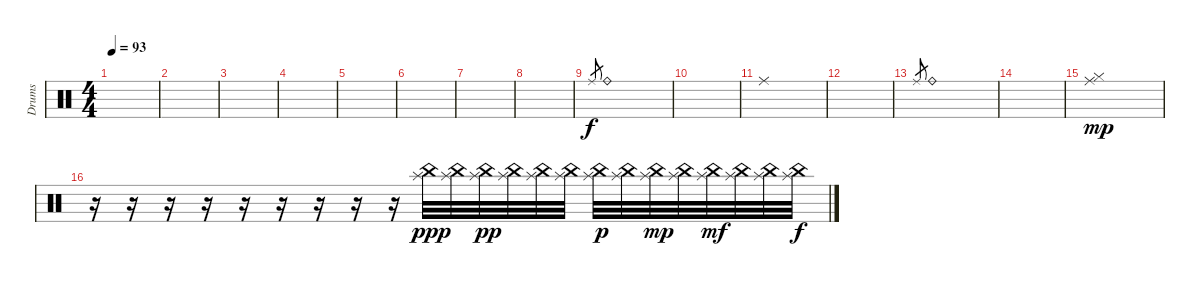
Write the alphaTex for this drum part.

\track ("Drums" "Drums") {instrument percussion}
\staff {score}
\articulation defaults
\ts (4 4)
\tempo 93
\clef neutral
\ks c
|
|
|
|
|
|
|
|
"Ride (middle)".8{gr} "Ride (bell)".1 |
|
"Ride (middle)".1 |
|
"Ride (middle)".8{gr} "Ride (bell)".1 |
|
("Ride (middle)" "Hi-Hat (closed)").1{dy mp} |
r.16 r.16 r.16 r.16 r.16 r.16 r.16 r.16 r.16 ("Splash (hit)" "China (hit)").32{dy ppp} ("Splash (hit)" "China (hit)").32 ("Splash (hit)" "China (hit)").32{dy pp} ("Splash (hit)" "China (hit)").32 ("Splash (hit)" "China (hit)").32 ("Splash (hit)" "China (hit)").32 ("Splash (hit)" "China (hit)").32{dy p} ("Splash (hit)" "China (hit)").32 ("Splash (hit)" "China (hit)").32{dy mp} ("Splash (hit)" "China (hit)").32 ("Splash (hit)" "China (hit)").32{dy mf} ("Splash (hit)" "China (hit)").32 ("Splash (hit)" "China (hit)").32 ("Splash (hit)" "China (hit)").32{dy f}
